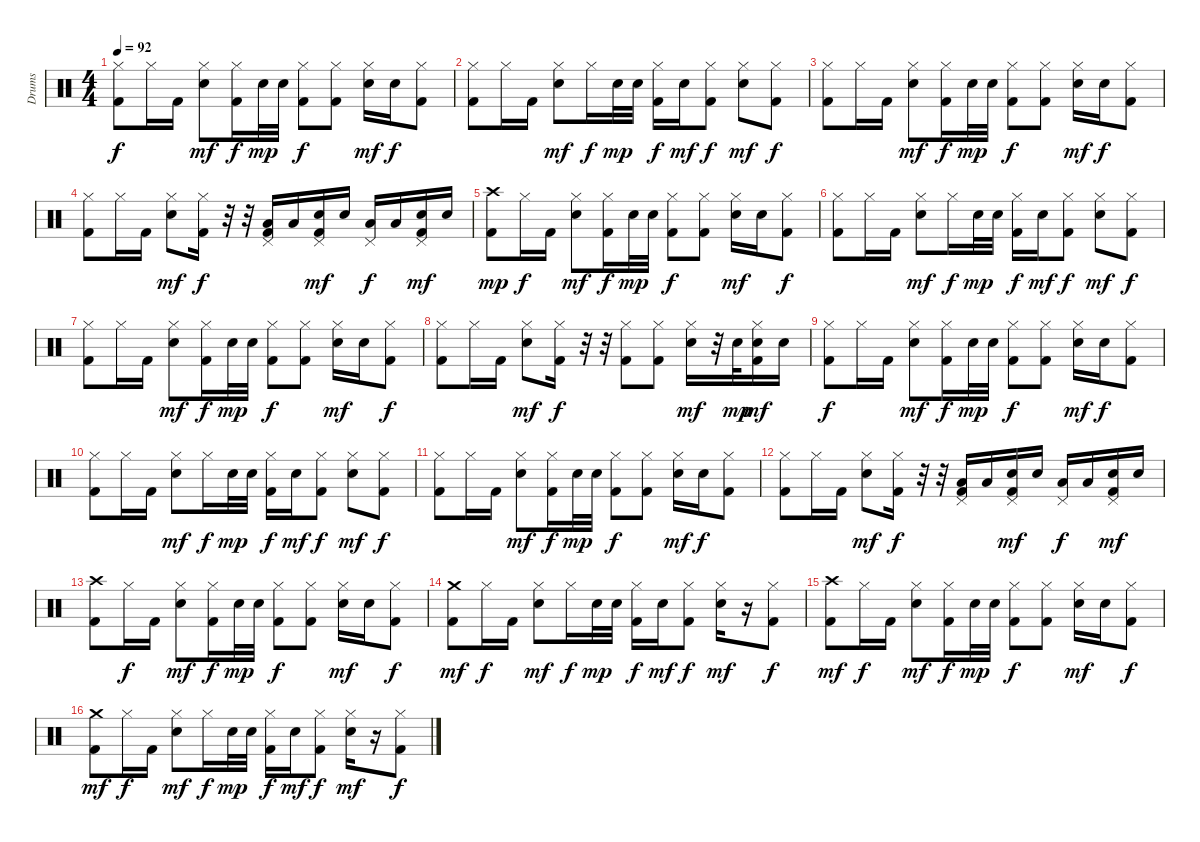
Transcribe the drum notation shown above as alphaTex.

\track ("Drums" "Drums") {instrument percussion}
\staff {score}
\articulation defaults
\ts (4 4)
\tempo 92
\clef neutral
\ks c
("Hi-Hat (closed)" "Kick (hit) 2").8{dy f} "Hi-Hat (closed)".16 "Kick (hit) 2".16 ("Hi-Hat (closed)" "Snare (hit) 2").8{dy mf} ("Hi-Hat (closed)" "Kick (hit) 2").16{dy f} "Snare (hit) 2".32{dy mp} "Snare (hit) 2".32 ("Hi-Hat (closed)" "Kick (hit) 2").8{dy f} ("Hi-Hat (closed)" "Kick (hit) 2").8 ("Hi-Hat (closed)" "Snare (hit) 2").16{dy mf} "Snare (hit) 2".16{dy f} ("Hi-Hat (closed)" "Kick (hit) 2").8 |
("Hi-Hat (closed)" "Kick (hit) 2").8 "Hi-Hat (closed)".16 "Kick (hit) 2".16 ("Hi-Hat (closed)" "Snare (hit) 2").8{dy mf} "Hi-Hat (closed)".16{dy f} "Snare (hit) 2".32{dy mp} "Snare (hit) 2".32 ("Hi-Hat (closed)" "Kick (hit) 2").16{dy f} "Snare (hit) 2".16{dy mf} ("Hi-Hat (closed)" "Kick (hit) 2").8{dy f} ("Hi-Hat (closed)" "Snare (hit) 2").8{dy mf} ("Hi-Hat (closed)" "Kick (hit) 2").8{dy f} |
("Hi-Hat (closed)" "Kick (hit) 2").8 "Hi-Hat (closed)".16 "Kick (hit) 2".16 ("Hi-Hat (closed)" "Snare (hit) 2").8{dy mf} ("Hi-Hat (closed)" "Kick (hit) 2").16{dy f} "Snare (hit) 2".32{dy mp} "Snare (hit) 2".32 ("Hi-Hat (closed)" "Kick (hit) 2").8{dy f} ("Hi-Hat (closed)" "Kick (hit) 2").8 ("Hi-Hat (closed)" "Snare (hit) 2").16{dy mf} "Snare (hit) 2".16{dy f} ("Hi-Hat (closed)" "Kick (hit) 2").8 |
("Hi-Hat (closed)" "Kick (hit) 2").8 "Hi-Hat (closed)".16 "Kick (hit) 2".16 ("Hi-Hat (closed)" "Snare (hit) 2").8{dy mf} ("Hi-Hat (closed)" "Kick (hit) 2").16{dy f} r.32 r.32 ("Pedal Hi-Hat (hit)" "Low Tom (hit)" "Kick (hit) 2").16 "Low Tom (hit)".16 ("Pedal Hi-Hat (hit)" "Snare (hit) 2" "Kick (hit) 2").16{dy mf} "Snare (hit) 2".16 ("Pedal Hi-Hat (hit)" "Low Tom (hit)").16{dy f} "Low Tom (hit)".16 ("Pedal Hi-Hat (hit)" "Snare (hit) 2" "Kick (hit) 2").16{dy mf} "Snare (hit) 2".16 |
("Crash high (hit)" "Kick (hit) 2").8{dy mp} "Hi-Hat (closed)".16{dy f} "Kick (hit) 2".16 ("Hi-Hat (closed)" "Snare (hit) 2").8{dy mf} ("Hi-Hat (closed)" "Kick (hit) 2").16{dy f} "Snare (hit) 2".32{dy mp} "Snare (hit) 2".32 ("Hi-Hat (closed)" "Kick (hit) 2").8{dy f} ("Hi-Hat (closed)" "Kick (hit) 2").8 ("Hi-Hat (closed)" "Snare (hit) 2").16{dy mf} "Snare (hit) 2".16 ("Hi-Hat (closed)" "Kick (hit) 2").8{dy f} |
("Hi-Hat (closed)" "Kick (hit) 2").8 "Hi-Hat (closed)".16 "Kick (hit) 2".16 ("Hi-Hat (closed)" "Snare (hit) 2").8{dy mf} "Hi-Hat (closed)".16{dy f} "Snare (hit) 2".32{dy mp} "Snare (hit) 2".32 ("Hi-Hat (closed)" "Kick (hit) 2").16{dy f} "Snare (hit) 2".16{dy mf} ("Hi-Hat (closed)" "Kick (hit) 2").8{dy f} ("Hi-Hat (closed)" "Snare (hit) 2").8{dy mf} ("Hi-Hat (closed)" "Kick (hit) 2").8{dy f} |
("Hi-Hat (closed)" "Kick (hit) 2").8 "Hi-Hat (closed)".16 "Kick (hit) 2".16 ("Hi-Hat (closed)" "Snare (hit) 2").8{dy mf} ("Hi-Hat (closed)" "Kick (hit) 2").16{dy f} "Snare (hit) 2".32{dy mp} "Snare (hit) 2".32 ("Hi-Hat (closed)" "Kick (hit) 2").8{dy f} ("Hi-Hat (closed)" "Kick (hit) 2").8 ("Hi-Hat (closed)" "Snare (hit) 2").16{dy mf} "Snare (hit) 2".16 ("Hi-Hat (closed)" "Kick (hit) 2").8{dy f} |
("Hi-Hat (closed)" "Kick (hit) 2").8 "Hi-Hat (closed)".16 "Kick (hit) 2".16 ("Hi-Hat (closed)" "Snare (hit) 2").8{dy mf} ("Hi-Hat (closed)" "Kick (hit) 2").16{dy f} r.32 r.32 ("Hi-Hat (closed)" "Kick (hit) 2").8 ("Hi-Hat (closed)" "Kick (hit) 2").8 ("Hi-Hat (closed)" "Snare (hit) 2").16{dy mf} r.32 "Snare (hit) 2".32{dy mp} ("Hi-Hat (closed)" "Snare (hit) 2" "Kick (hit) 2").16{dy mf} "Snare (hit) 2".16 |
("Hi-Hat (closed)" "Kick (hit) 2").8{dy f} "Hi-Hat (closed)".16 "Kick (hit) 2".16 ("Hi-Hat (closed)" "Snare (hit) 2").8{dy mf} ("Hi-Hat (closed)" "Kick (hit) 2").16{dy f} "Snare (hit) 2".32{dy mp} "Snare (hit) 2".32 ("Hi-Hat (closed)" "Kick (hit) 2").8{dy f} ("Hi-Hat (closed)" "Kick (hit) 2").8 ("Hi-Hat (closed)" "Snare (hit) 2").16{dy mf} "Snare (hit) 2".16{dy f} ("Hi-Hat (closed)" "Kick (hit) 2").8 |
("Hi-Hat (closed)" "Kick (hit) 2").8 "Hi-Hat (closed)".16 "Kick (hit) 2".16 ("Hi-Hat (closed)" "Snare (hit) 2").8{dy mf} "Hi-Hat (closed)".16{dy f} "Snare (hit) 2".32{dy mp} "Snare (hit) 2".32 ("Hi-Hat (closed)" "Kick (hit) 2").16{dy f} "Snare (hit) 2".16{dy mf} ("Hi-Hat (closed)" "Kick (hit) 2").8{dy f} ("Hi-Hat (closed)" "Snare (hit) 2").8{dy mf} ("Hi-Hat (closed)" "Kick (hit) 2").8{dy f} |
("Hi-Hat (closed)" "Kick (hit) 2").8 "Hi-Hat (closed)".16 "Kick (hit) 2".16 ("Hi-Hat (closed)" "Snare (hit) 2").8{dy mf} ("Hi-Hat (closed)" "Kick (hit) 2").16{dy f} "Snare (hit) 2".32{dy mp} "Snare (hit) 2".32 ("Hi-Hat (closed)" "Kick (hit) 2").8{dy f} ("Hi-Hat (closed)" "Kick (hit) 2").8 ("Hi-Hat (closed)" "Snare (hit) 2").16{dy mf} "Snare (hit) 2".16{dy f} ("Hi-Hat (closed)" "Kick (hit) 2").8 |
("Hi-Hat (closed)" "Kick (hit) 2").8 "Hi-Hat (closed)".16 "Kick (hit) 2".16 ("Hi-Hat (closed)" "Snare (hit) 2").8{dy mf} ("Hi-Hat (closed)" "Kick (hit) 2").16{dy f} r.32 r.32 ("Pedal Hi-Hat (hit)" "Low Tom (hit)" "Kick (hit) 2").16 "Low Tom (hit)".16 ("Pedal Hi-Hat (hit)" "Snare (hit) 2" "Kick (hit) 2").16{dy mf} "Snare (hit) 2".16 ("Pedal Hi-Hat (hit)" "Low Tom (hit)").16{dy f} "Low Tom (hit)".16 ("Pedal Hi-Hat (hit)" "Snare (hit) 2" "Kick (hit) 2").16{dy mf} "Snare (hit) 2".16 |
("Crash high (hit)" "Kick (hit) 2").8 "Hi-Hat (closed)".16{dy f} "Kick (hit) 2".16 ("Hi-Hat (closed)" "Snare (hit) 2").8{dy mf} ("Hi-Hat (closed)" "Kick (hit) 2").16{dy f} "Snare (hit) 2".32{dy mp} "Snare (hit) 2".32 ("Hi-Hat (closed)" "Kick (hit) 2").8{dy f} ("Hi-Hat (closed)" "Kick (hit) 2").8 ("Hi-Hat (closed)" "Snare (hit) 2").16{dy mf} "Snare (hit) 2".16 ("Hi-Hat (closed)" "Kick (hit) 2").8{dy f} |
("Crash medium (hit)" "Kick (hit) 2").8{dy mf} "Hi-Hat (closed)".16{dy f} "Kick (hit) 2".16 ("Hi-Hat (closed)" "Snare (hit) 2").8{dy mf} "Hi-Hat (closed)".16{dy f} "Snare (hit) 2".32{dy mp} "Snare (hit) 2".32 ("Hi-Hat (closed)" "Kick (hit) 2").16{dy f} "Snare (hit) 2".16{dy mf} ("Hi-Hat (closed)" "Kick (hit) 2").8{dy f} ("Hi-Hat (closed)" "Snare (hit) 2").16{dy mf} r.16 ("Hi-Hat (closed)" "Kick (hit) 2").8{dy f} |
("Crash high (hit)" "Kick (hit) 2").8{dy mf} "Hi-Hat (closed)".16{dy f} "Kick (hit) 2".16 ("Hi-Hat (closed)" "Snare (hit) 2").8{dy mf} ("Hi-Hat (closed)" "Kick (hit) 2").16{dy f} "Snare (hit) 2".32{dy mp} "Snare (hit) 2".32 ("Hi-Hat (closed)" "Kick (hit) 2").8{dy f} ("Hi-Hat (closed)" "Kick (hit) 2").8 ("Hi-Hat (closed)" "Snare (hit) 2").16{dy mf} "Snare (hit) 2".16 ("Hi-Hat (closed)" "Kick (hit) 2").8{dy f} |
("Crash medium (hit)" "Kick (hit) 2").8{dy mf} "Hi-Hat (closed)".16{dy f} "Kick (hit) 2".16 ("Hi-Hat (closed)" "Snare (hit) 2").8{dy mf} "Hi-Hat (closed)".16{dy f} "Snare (hit) 2".32{dy mp} "Snare (hit) 2".32 ("Hi-Hat (closed)" "Kick (hit) 2").16{dy f} "Snare (hit) 2".16{dy mf} ("Hi-Hat (closed)" "Kick (hit) 2").8{dy f} ("Hi-Hat (closed)" "Snare (hit) 2").16{dy mf} r.16 ("Hi-Hat (closed)" "Kick (hit) 2").8{dy f}
